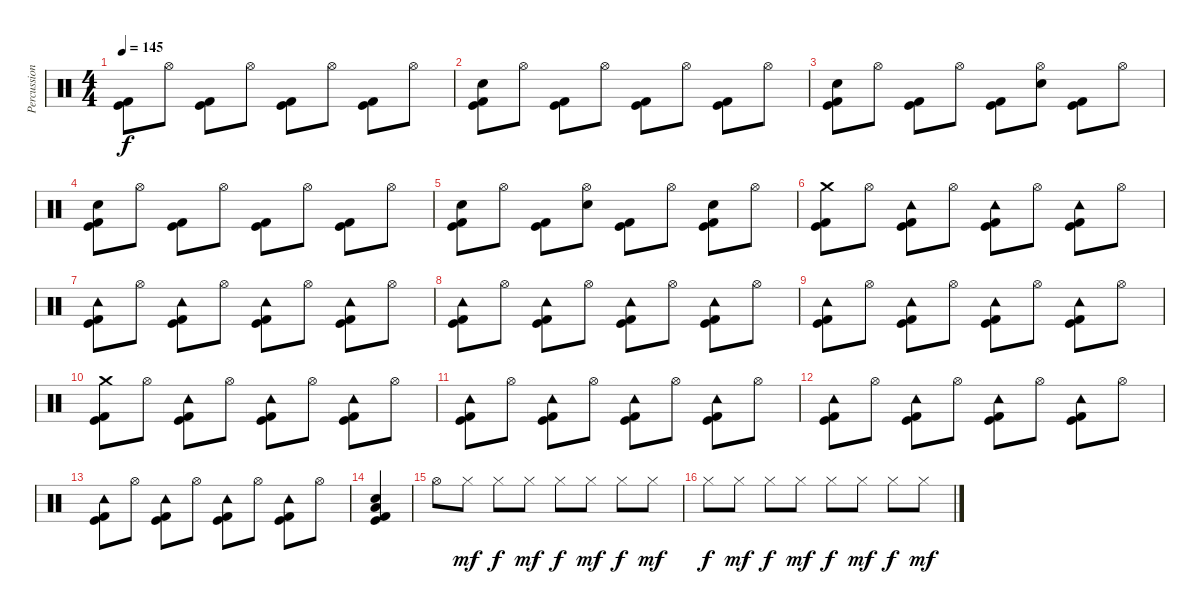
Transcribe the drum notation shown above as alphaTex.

\track ("Percussion" "Percussion") {instrument percussion}
\staff {score}
\articulation defaults
\ts (4 4)
\tempo 145
\clef neutral
\ks c
("Kick (hit) 2" "Kick (hit)").8{dy f} "Hi-Hat (open)".8 ("Kick (hit) 2" "Kick (hit)").8 "Hi-Hat (open)".8 ("Kick (hit) 2" "Kick (hit)").8 "Hi-Hat (open)".8 ("Kick (hit) 2" "Kick (hit)").8 "Hi-Hat (open)".8 |
("Electric Snare (hit)" "Kick (hit) 2" "Kick (hit)").8 "Hi-Hat (open)".8 ("Kick (hit) 2" "Kick (hit)").8 "Hi-Hat (open)".8 ("Kick (hit) 2" "Kick (hit)").8 "Hi-Hat (open)".8 ("Kick (hit) 2" "Kick (hit)").8 "Hi-Hat (open)".8 |
("Electric Snare (hit)" "Kick (hit) 2" "Kick (hit)").8 "Hi-Hat (open)".8 ("Kick (hit) 2" "Kick (hit)").8 "Hi-Hat (open)".8 ("Kick (hit) 2" "Kick (hit)").8 ("Hi-Hat (open)" "Electric Snare (hit)").8 ("Kick (hit) 2" "Kick (hit)").8 "Hi-Hat (open)".8 |
("Electric Snare (hit)" "Kick (hit) 2" "Kick (hit)").8 "Hi-Hat (open)".8 ("Kick (hit) 2" "Kick (hit)").8 "Hi-Hat (open)".8 ("Kick (hit) 2" "Kick (hit)").8 "Hi-Hat (open)".8 ("Kick (hit) 2" "Kick (hit)").8 "Hi-Hat (open)".8 |
("Electric Snare (hit)" "Kick (hit) 2" "Kick (hit)").8 "Hi-Hat (open)".8 ("Kick (hit) 2" "Kick (hit)").8 ("Hi-Hat (open)" "Electric Snare (hit)").8 ("Kick (hit) 2" "Kick (hit)").8 "Hi-Hat (open)".8 ("Electric Snare (hit)" "Kick (hit) 2" "Kick (hit)").8 "Hi-Hat (open)".8 |
("Crash medium (hit)" "Kick (hit) 2" "Kick (hit)").8 "Hi-Hat (open)".8 ("Tambourine (hit)" "Kick (hit) 2" "Kick (hit)").8 "Hi-Hat (open)".8 ("Tambourine (hit)" "Kick (hit) 2" "Kick (hit)").8 "Hi-Hat (open)".8 ("Tambourine (hit)" "Kick (hit) 2" "Kick (hit)").8 "Hi-Hat (open)".8 |
("Tambourine (hit)" "Kick (hit) 2" "Kick (hit)").8 "Hi-Hat (open)".8 ("Tambourine (hit)" "Kick (hit) 2" "Kick (hit)").8 "Hi-Hat (open)".8 ("Tambourine (hit)" "Kick (hit) 2" "Kick (hit)").8 "Hi-Hat (open)".8 ("Tambourine (hit)" "Kick (hit) 2" "Kick (hit)").8 "Hi-Hat (open)".8 |
("Tambourine (hit)" "Kick (hit) 2" "Kick (hit)").8 "Hi-Hat (open)".8 ("Tambourine (hit)" "Kick (hit) 2" "Kick (hit)").8 "Hi-Hat (open)".8 ("Tambourine (hit)" "Kick (hit) 2" "Kick (hit)").8 "Hi-Hat (open)".8 ("Tambourine (hit)" "Kick (hit) 2" "Kick (hit)").8 "Hi-Hat (open)".8 |
("Tambourine (hit)" "Kick (hit) 2" "Kick (hit)").8 "Hi-Hat (open)".8 ("Tambourine (hit)" "Kick (hit) 2" "Kick (hit)").8 "Hi-Hat (open)".8 ("Tambourine (hit)" "Kick (hit) 2" "Kick (hit)").8 "Hi-Hat (open)".8 ("Tambourine (hit)" "Kick (hit) 2" "Kick (hit)").8 "Hi-Hat (open)".8 |
("Crash medium (hit)" "Kick (hit) 2" "Kick (hit)").8 "Hi-Hat (open)".8 ("Tambourine (hit)" "Kick (hit) 2" "Kick (hit)").8 "Hi-Hat (open)".8 ("Tambourine (hit)" "Kick (hit) 2" "Kick (hit)").8 "Hi-Hat (open)".8 ("Tambourine (hit)" "Kick (hit) 2" "Kick (hit)").8 "Hi-Hat (open)".8 |
("Tambourine (hit)" "Kick (hit) 2" "Kick (hit)").8 "Hi-Hat (open)".8 ("Tambourine (hit)" "Kick (hit) 2" "Kick (hit)").8 "Hi-Hat (open)".8 ("Tambourine (hit)" "Kick (hit) 2" "Kick (hit)").8 "Hi-Hat (open)".8 ("Tambourine (hit)" "Kick (hit) 2" "Kick (hit)").8 "Hi-Hat (open)".8 |
("Tambourine (hit)" "Kick (hit) 2" "Kick (hit)").8 "Hi-Hat (open)".8 ("Tambourine (hit)" "Kick (hit) 2" "Kick (hit)").8 "Hi-Hat (open)".8 ("Tambourine (hit)" "Kick (hit) 2" "Kick (hit)").8 "Hi-Hat (open)".8 ("Tambourine (hit)" "Kick (hit) 2" "Kick (hit)").8 "Hi-Hat (open)".8 |
("Tambourine (hit)" "Kick (hit) 2" "Kick (hit)").8 "Hi-Hat (open)".8 ("Tambourine (hit)" "Kick (hit) 2" "Kick (hit)").8 "Hi-Hat (open)".8 ("Tambourine (hit)" "Kick (hit) 2" "Kick (hit)").8 "Hi-Hat (open)".8 ("Tambourine (hit)" "Kick (hit) 2" "Kick (hit)").8 "Hi-Hat (open)".8 |
("Electric Snare (hit)" "Low Floor Tom (hit)" "Kick (hit) 2" "Kick (hit)").4 |
"Hi-Hat (open)".8 "Hi-Hat (closed)".8{dy mf} "Hi-Hat (closed)".8{dy f} "Hi-Hat (closed)".8{dy mf} "Hi-Hat (closed)".8{dy f} "Hi-Hat (closed)".8{dy mf} "Hi-Hat (closed)".8{dy f} "Hi-Hat (closed)".8{dy mf} |
"Hi-Hat (closed)".8{dy f} "Hi-Hat (closed)".8{dy mf} "Hi-Hat (closed)".8{dy f} "Hi-Hat (closed)".8{dy mf} "Hi-Hat (closed)".8{dy f} "Hi-Hat (closed)".8{dy mf} "Hi-Hat (closed)".8{dy f} "Hi-Hat (closed)".8{dy mf}
